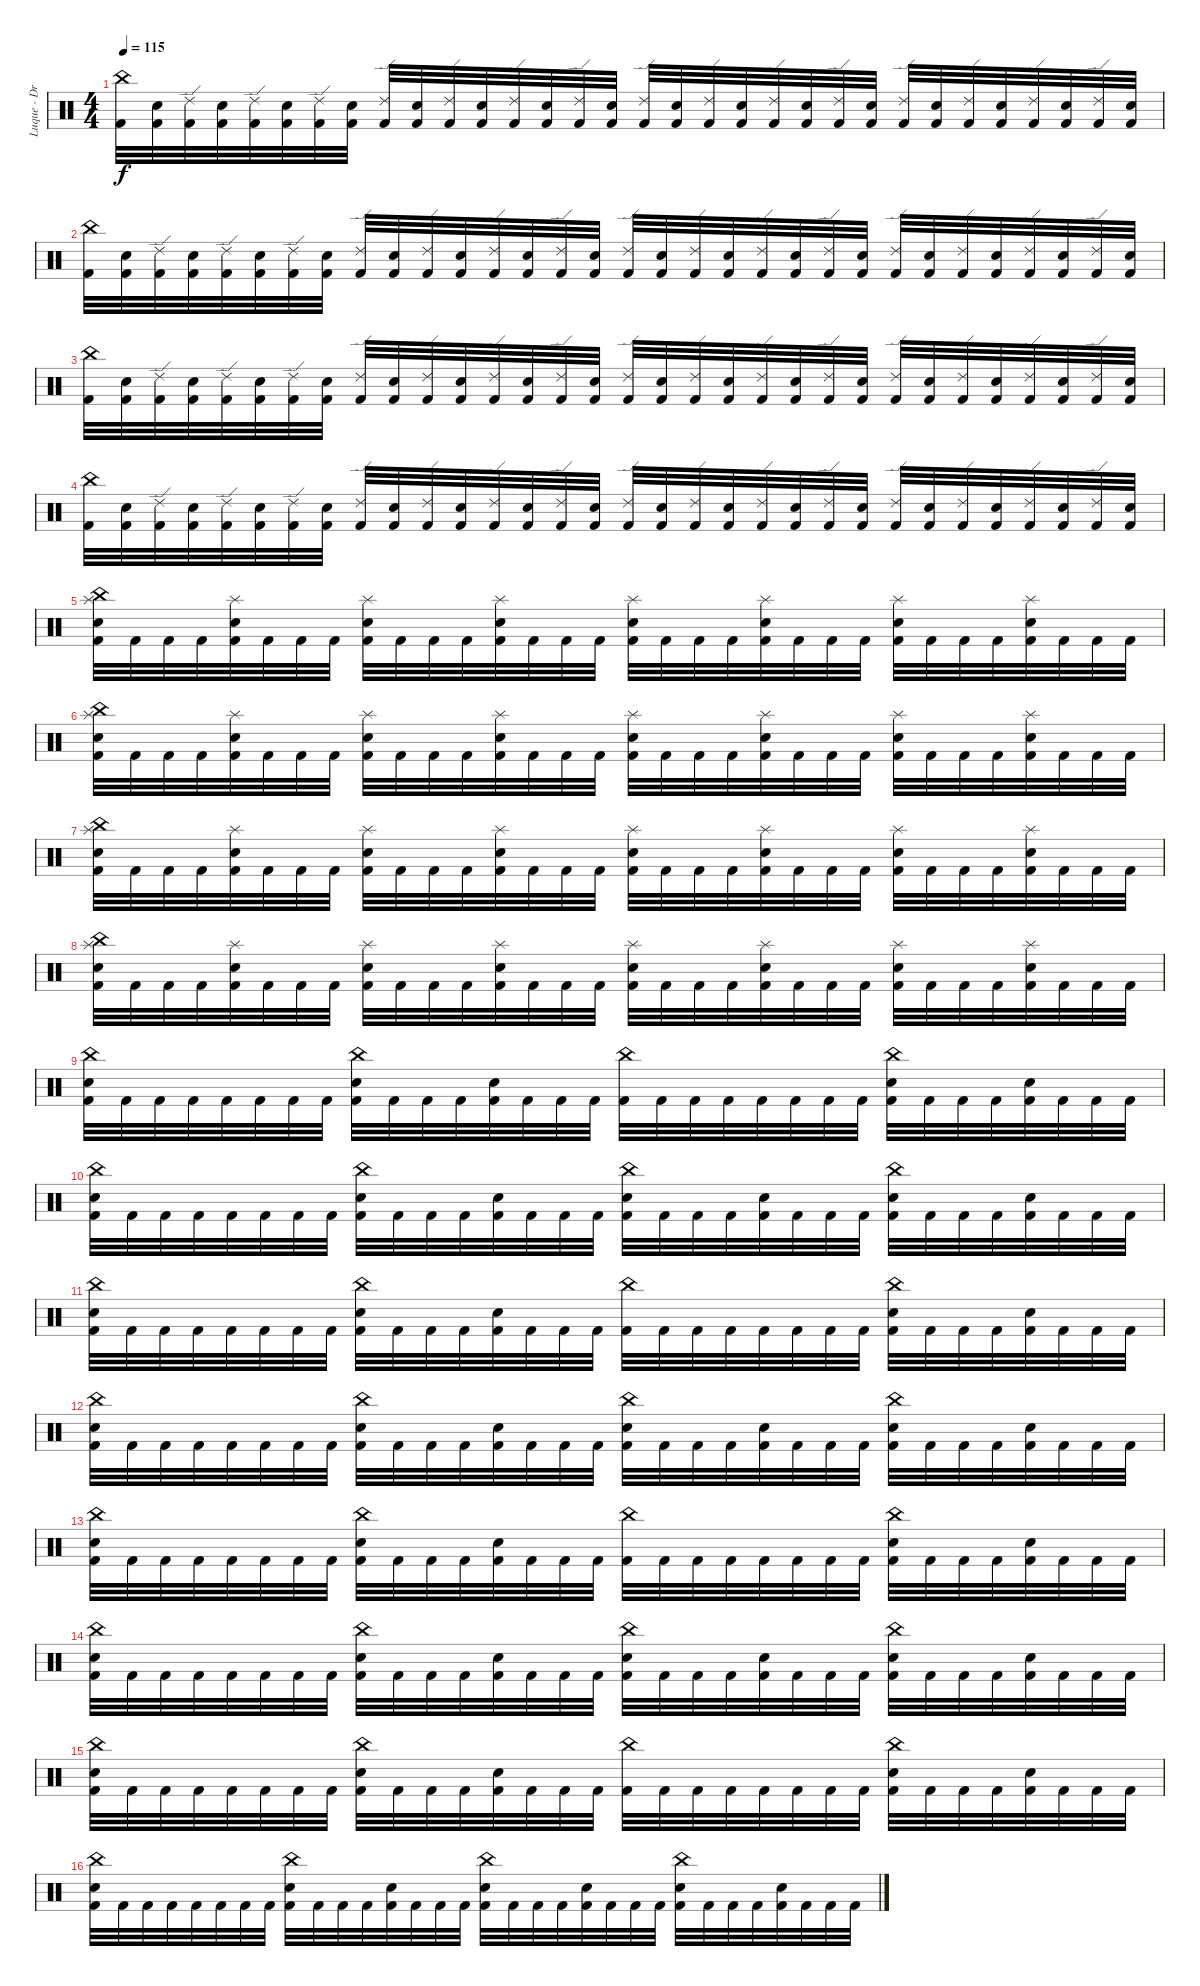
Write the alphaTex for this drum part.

\track ("Luque - Drums" "Luque - Dr") {instrument percussion}
\staff {score}
\articulation defaults
\ts (4 4)
\tempo 115
\clef neutral
\ks c
("China (hit)" "Kick (hit) 2").32{dy f} ("Electric Snare (hit)" "Kick (hit) 2").32 ("Ride (edge) 2" "Kick (hit) 2").32 ("Electric Snare (hit)" "Kick (hit) 2").32 ("Ride (edge) 2" "Kick (hit) 2").32 ("Electric Snare (hit)" "Kick (hit) 2").32 ("Ride (edge) 2" "Kick (hit) 2").32 ("Electric Snare (hit)" "Kick (hit) 2").32 ("Ride (edge) 2" "Kick (hit) 2").32 ("Electric Snare (hit)" "Kick (hit) 2").32 ("Ride (edge) 2" "Kick (hit) 2").32 ("Electric Snare (hit)" "Kick (hit) 2").32 ("Ride (edge) 2" "Kick (hit) 2").32 ("Electric Snare (hit)" "Kick (hit) 2").32 ("Ride (edge) 2" "Kick (hit) 2").32 ("Electric Snare (hit)" "Kick (hit) 2").32 ("Ride (edge) 2" "Kick (hit) 2").32 ("Electric Snare (hit)" "Kick (hit) 2").32 ("Ride (edge) 2" "Kick (hit) 2").32 ("Electric Snare (hit)" "Kick (hit) 2").32 ("Ride (edge) 2" "Kick (hit) 2").32 ("Electric Snare (hit)" "Kick (hit) 2").32 ("Ride (edge) 2" "Kick (hit) 2").32 ("Electric Snare (hit)" "Kick (hit) 2").32 ("Ride (edge) 2" "Kick (hit) 2").32 ("Electric Snare (hit)" "Kick (hit) 2").32 ("Ride (edge) 2" "Kick (hit) 2").32 ("Electric Snare (hit)" "Kick (hit) 2").32 ("Ride (edge) 2" "Kick (hit) 2").32 ("Electric Snare (hit)" "Kick (hit) 2").32 ("Ride (edge) 2" "Kick (hit) 2").32 ("Electric Snare (hit)" "Kick (hit) 2").32 |
("China (hit)" "Kick (hit) 2").32 ("Electric Snare (hit)" "Kick (hit) 2").32 ("Ride (edge) 2" "Kick (hit) 2").32 ("Electric Snare (hit)" "Kick (hit) 2").32 ("Ride (edge) 2" "Kick (hit) 2").32 ("Electric Snare (hit)" "Kick (hit) 2").32 ("Ride (edge) 2" "Kick (hit) 2").32 ("Electric Snare (hit)" "Kick (hit) 2").32 ("Ride (edge) 2" "Kick (hit) 2").32 ("Electric Snare (hit)" "Kick (hit) 2").32 ("Ride (edge) 2" "Kick (hit) 2").32 ("Electric Snare (hit)" "Kick (hit) 2").32 ("Ride (edge) 2" "Kick (hit) 2").32 ("Electric Snare (hit)" "Kick (hit) 2").32 ("Ride (edge) 2" "Kick (hit) 2").32 ("Electric Snare (hit)" "Kick (hit) 2").32 ("Ride (edge) 2" "Kick (hit) 2").32 ("Electric Snare (hit)" "Kick (hit) 2").32 ("Ride (edge) 2" "Kick (hit) 2").32 ("Electric Snare (hit)" "Kick (hit) 2").32 ("Ride (edge) 2" "Kick (hit) 2").32 ("Electric Snare (hit)" "Kick (hit) 2").32 ("Ride (edge) 2" "Kick (hit) 2").32 ("Electric Snare (hit)" "Kick (hit) 2").32 ("Ride (edge) 2" "Kick (hit) 2").32 ("Electric Snare (hit)" "Kick (hit) 2").32 ("Ride (edge) 2" "Kick (hit) 2").32 ("Electric Snare (hit)" "Kick (hit) 2").32 ("Ride (edge) 2" "Kick (hit) 2").32 ("Electric Snare (hit)" "Kick (hit) 2").32 ("Ride (edge) 2" "Kick (hit) 2").32 ("Electric Snare (hit)" "Kick (hit) 2").32 |
("China (hit)" "Kick (hit) 2").32 ("Electric Snare (hit)" "Kick (hit) 2").32 ("Ride (edge) 2" "Kick (hit) 2").32 ("Electric Snare (hit)" "Kick (hit) 2").32 ("Ride (edge) 2" "Kick (hit) 2").32 ("Electric Snare (hit)" "Kick (hit) 2").32 ("Ride (edge) 2" "Kick (hit) 2").32 ("Electric Snare (hit)" "Kick (hit) 2").32 ("Ride (edge) 2" "Kick (hit) 2").32 ("Electric Snare (hit)" "Kick (hit) 2").32 ("Ride (edge) 2" "Kick (hit) 2").32 ("Electric Snare (hit)" "Kick (hit) 2").32 ("Ride (edge) 2" "Kick (hit) 2").32 ("Electric Snare (hit)" "Kick (hit) 2").32 ("Ride (edge) 2" "Kick (hit) 2").32 ("Electric Snare (hit)" "Kick (hit) 2").32 ("Ride (edge) 2" "Kick (hit) 2").32 ("Electric Snare (hit)" "Kick (hit) 2").32 ("Ride (edge) 2" "Kick (hit) 2").32 ("Electric Snare (hit)" "Kick (hit) 2").32 ("Ride (edge) 2" "Kick (hit) 2").32 ("Electric Snare (hit)" "Kick (hit) 2").32 ("Ride (edge) 2" "Kick (hit) 2").32 ("Electric Snare (hit)" "Kick (hit) 2").32 ("Ride (edge) 2" "Kick (hit) 2").32 ("Electric Snare (hit)" "Kick (hit) 2").32 ("Ride (edge) 2" "Kick (hit) 2").32 ("Electric Snare (hit)" "Kick (hit) 2").32 ("Ride (edge) 2" "Kick (hit) 2").32 ("Electric Snare (hit)" "Kick (hit) 2").32 ("Ride (edge) 2" "Kick (hit) 2").32 ("Electric Snare (hit)" "Kick (hit) 2").32 |
("China (hit)" "Kick (hit) 2").32 ("Electric Snare (hit)" "Kick (hit) 2").32 ("Ride (edge) 2" "Kick (hit) 2").32 ("Electric Snare (hit)" "Kick (hit) 2").32 ("Ride (edge) 2" "Kick (hit) 2").32 ("Electric Snare (hit)" "Kick (hit) 2").32 ("Ride (edge) 2" "Kick (hit) 2").32 ("Electric Snare (hit)" "Kick (hit) 2").32 ("Ride (edge) 2" "Kick (hit) 2").32 ("Electric Snare (hit)" "Kick (hit) 2").32 ("Ride (edge) 2" "Kick (hit) 2").32 ("Electric Snare (hit)" "Kick (hit) 2").32 ("Ride (edge) 2" "Kick (hit) 2").32 ("Electric Snare (hit)" "Kick (hit) 2").32 ("Ride (edge) 2" "Kick (hit) 2").32 ("Electric Snare (hit)" "Kick (hit) 2").32 ("Ride (edge) 2" "Kick (hit) 2").32 ("Electric Snare (hit)" "Kick (hit) 2").32 ("Ride (edge) 2" "Kick (hit) 2").32 ("Electric Snare (hit)" "Kick (hit) 2").32 ("Ride (edge) 2" "Kick (hit) 2").32 ("Electric Snare (hit)" "Kick (hit) 2").32 ("Ride (edge) 2" "Kick (hit) 2").32 ("Electric Snare (hit)" "Kick (hit) 2").32 ("Ride (edge) 2" "Kick (hit) 2").32 ("Electric Snare (hit)" "Kick (hit) 2").32 ("Ride (edge) 2" "Kick (hit) 2").32 ("Electric Snare (hit)" "Kick (hit) 2").32 ("Ride (edge) 2" "Kick (hit) 2").32 ("Electric Snare (hit)" "Kick (hit) 2").32 ("Ride (edge) 2" "Kick (hit) 2").32 ("Electric Snare (hit)" "Kick (hit) 2").32 |
("Splash (hit)" "China (hit)" "Electric Snare (hit)" "Kick (hit) 2").32 "Kick (hit) 2".32 "Kick (hit) 2".32 "Kick (hit) 2".32 ("Splash (hit)" "Electric Snare (hit)" "Kick (hit) 2").32 "Kick (hit) 2".32 "Kick (hit) 2".32 "Kick (hit) 2".32 ("Splash (hit)" "Electric Snare (hit)" "Kick (hit) 2").32 "Kick (hit) 2".32 "Kick (hit) 2".32 "Kick (hit) 2".32 ("Splash (hit)" "Electric Snare (hit)" "Kick (hit) 2").32 "Kick (hit) 2".32 "Kick (hit) 2".32 "Kick (hit) 2".32 ("Splash (hit)" "Electric Snare (hit)" "Kick (hit) 2").32 "Kick (hit) 2".32 "Kick (hit) 2".32 "Kick (hit) 2".32 ("Splash (hit)" "Electric Snare (hit)" "Kick (hit) 2").32 "Kick (hit) 2".32 "Kick (hit) 2".32 "Kick (hit) 2".32 ("Splash (hit)" "Electric Snare (hit)" "Kick (hit) 2").32 "Kick (hit) 2".32 "Kick (hit) 2".32 "Kick (hit) 2".32 ("Splash (hit)" "Electric Snare (hit)" "Kick (hit) 2").32 "Kick (hit) 2".32 "Kick (hit) 2".32 "Kick (hit) 2".32 |
("Splash (hit)" "China (hit)" "Electric Snare (hit)" "Kick (hit) 2").32 "Kick (hit) 2".32 "Kick (hit) 2".32 "Kick (hit) 2".32 ("Splash (hit)" "Electric Snare (hit)" "Kick (hit) 2").32 "Kick (hit) 2".32 "Kick (hit) 2".32 "Kick (hit) 2".32 ("Splash (hit)" "Electric Snare (hit)" "Kick (hit) 2").32 "Kick (hit) 2".32 "Kick (hit) 2".32 "Kick (hit) 2".32 ("Splash (hit)" "Electric Snare (hit)" "Kick (hit) 2").32 "Kick (hit) 2".32 "Kick (hit) 2".32 "Kick (hit) 2".32 ("Splash (hit)" "Electric Snare (hit)" "Kick (hit) 2").32 "Kick (hit) 2".32 "Kick (hit) 2".32 "Kick (hit) 2".32 ("Splash (hit)" "Electric Snare (hit)" "Kick (hit) 2").32 "Kick (hit) 2".32 "Kick (hit) 2".32 "Kick (hit) 2".32 ("Splash (hit)" "Electric Snare (hit)" "Kick (hit) 2").32 "Kick (hit) 2".32 "Kick (hit) 2".32 "Kick (hit) 2".32 ("Splash (hit)" "Electric Snare (hit)" "Kick (hit) 2").32 "Kick (hit) 2".32 "Kick (hit) 2".32 "Kick (hit) 2".32 |
("Splash (hit)" "China (hit)" "Electric Snare (hit)" "Kick (hit) 2").32 "Kick (hit) 2".32 "Kick (hit) 2".32 "Kick (hit) 2".32 ("Splash (hit)" "Electric Snare (hit)" "Kick (hit) 2").32 "Kick (hit) 2".32 "Kick (hit) 2".32 "Kick (hit) 2".32 ("Splash (hit)" "Electric Snare (hit)" "Kick (hit) 2").32 "Kick (hit) 2".32 "Kick (hit) 2".32 "Kick (hit) 2".32 ("Splash (hit)" "Electric Snare (hit)" "Kick (hit) 2").32 "Kick (hit) 2".32 "Kick (hit) 2".32 "Kick (hit) 2".32 ("Splash (hit)" "Electric Snare (hit)" "Kick (hit) 2").32 "Kick (hit) 2".32 "Kick (hit) 2".32 "Kick (hit) 2".32 ("Splash (hit)" "Electric Snare (hit)" "Kick (hit) 2").32 "Kick (hit) 2".32 "Kick (hit) 2".32 "Kick (hit) 2".32 ("Splash (hit)" "Electric Snare (hit)" "Kick (hit) 2").32 "Kick (hit) 2".32 "Kick (hit) 2".32 "Kick (hit) 2".32 ("Splash (hit)" "Electric Snare (hit)" "Kick (hit) 2").32 "Kick (hit) 2".32 "Kick (hit) 2".32 "Kick (hit) 2".32 |
("Splash (hit)" "China (hit)" "Electric Snare (hit)" "Kick (hit) 2").32 "Kick (hit) 2".32 "Kick (hit) 2".32 "Kick (hit) 2".32 ("Splash (hit)" "Electric Snare (hit)" "Kick (hit) 2").32 "Kick (hit) 2".32 "Kick (hit) 2".32 "Kick (hit) 2".32 ("Splash (hit)" "Electric Snare (hit)" "Kick (hit) 2").32 "Kick (hit) 2".32 "Kick (hit) 2".32 "Kick (hit) 2".32 ("Splash (hit)" "Electric Snare (hit)" "Kick (hit) 2").32 "Kick (hit) 2".32 "Kick (hit) 2".32 "Kick (hit) 2".32 ("Splash (hit)" "Electric Snare (hit)" "Kick (hit) 2").32 "Kick (hit) 2".32 "Kick (hit) 2".32 "Kick (hit) 2".32 ("Splash (hit)" "Electric Snare (hit)" "Kick (hit) 2").32 "Kick (hit) 2".32 "Kick (hit) 2".32 "Kick (hit) 2".32 ("Splash (hit)" "Electric Snare (hit)" "Kick (hit) 2").32 "Kick (hit) 2".32 "Kick (hit) 2".32 "Kick (hit) 2".32 ("Splash (hit)" "Electric Snare (hit)" "Kick (hit) 2").32 "Kick (hit) 2".32 "Kick (hit) 2".32 "Kick (hit) 2".32 |
("China (hit)" "Electric Snare (hit)" "Kick (hit) 2").32 "Kick (hit) 2".32 "Kick (hit) 2".32 "Kick (hit) 2".32 "Kick (hit) 2".32 "Kick (hit) 2".32 "Kick (hit) 2".32 "Kick (hit) 2".32 ("China (hit)" "Electric Snare (hit)" "Kick (hit) 2").32 "Kick (hit) 2".32 "Kick (hit) 2".32 "Kick (hit) 2".32 ("Electric Snare (hit)" "Kick (hit) 2").32 "Kick (hit) 2".32 "Kick (hit) 2".32 "Kick (hit) 2".32 ("China (hit)" "Kick (hit) 2").32 "Kick (hit) 2".32 "Kick (hit) 2".32 "Kick (hit) 2".32 "Kick (hit) 2".32 "Kick (hit) 2".32 "Kick (hit) 2".32 "Kick (hit) 2".32 ("China (hit)" "Electric Snare (hit)" "Kick (hit) 2").32 "Kick (hit) 2".32 "Kick (hit) 2".32 "Kick (hit) 2".32 ("Electric Snare (hit)" "Kick (hit) 2").32 "Kick (hit) 2".32 "Kick (hit) 2".32 "Kick (hit) 2".32 |
("China (hit)" "Electric Snare (hit)" "Kick (hit) 2").32 "Kick (hit) 2".32 "Kick (hit) 2".32 "Kick (hit) 2".32 "Kick (hit) 2".32 "Kick (hit) 2".32 "Kick (hit) 2".32 "Kick (hit) 2".32 ("China (hit)" "Electric Snare (hit)" "Kick (hit) 2").32 "Kick (hit) 2".32 "Kick (hit) 2".32 "Kick (hit) 2".32 ("Electric Snare (hit)" "Kick (hit) 2").32 "Kick (hit) 2".32 "Kick (hit) 2".32 "Kick (hit) 2".32 ("China (hit)" "Electric Snare (hit)" "Kick (hit) 2").32 "Kick (hit) 2".32 "Kick (hit) 2".32 "Kick (hit) 2".32 ("Electric Snare (hit)" "Kick (hit) 2").32 "Kick (hit) 2".32 "Kick (hit) 2".32 "Kick (hit) 2".32 ("China (hit)" "Electric Snare (hit)" "Kick (hit) 2").32 "Kick (hit) 2".32 "Kick (hit) 2".32 "Kick (hit) 2".32 ("Electric Snare (hit)" "Kick (hit) 2").32 "Kick (hit) 2".32 "Kick (hit) 2".32 "Kick (hit) 2".32 |
("China (hit)" "Electric Snare (hit)" "Kick (hit) 2").32 "Kick (hit) 2".32 "Kick (hit) 2".32 "Kick (hit) 2".32 "Kick (hit) 2".32 "Kick (hit) 2".32 "Kick (hit) 2".32 "Kick (hit) 2".32 ("China (hit)" "Electric Snare (hit)" "Kick (hit) 2").32 "Kick (hit) 2".32 "Kick (hit) 2".32 "Kick (hit) 2".32 ("Electric Snare (hit)" "Kick (hit) 2").32 "Kick (hit) 2".32 "Kick (hit) 2".32 "Kick (hit) 2".32 ("China (hit)" "Kick (hit) 2").32 "Kick (hit) 2".32 "Kick (hit) 2".32 "Kick (hit) 2".32 "Kick (hit) 2".32 "Kick (hit) 2".32 "Kick (hit) 2".32 "Kick (hit) 2".32 ("China (hit)" "Electric Snare (hit)" "Kick (hit) 2").32 "Kick (hit) 2".32 "Kick (hit) 2".32 "Kick (hit) 2".32 ("Electric Snare (hit)" "Kick (hit) 2").32 "Kick (hit) 2".32 "Kick (hit) 2".32 "Kick (hit) 2".32 |
("China (hit)" "Electric Snare (hit)" "Kick (hit) 2").32 "Kick (hit) 2".32 "Kick (hit) 2".32 "Kick (hit) 2".32 "Kick (hit) 2".32 "Kick (hit) 2".32 "Kick (hit) 2".32 "Kick (hit) 2".32 ("China (hit)" "Electric Snare (hit)" "Kick (hit) 2").32 "Kick (hit) 2".32 "Kick (hit) 2".32 "Kick (hit) 2".32 ("Electric Snare (hit)" "Kick (hit) 2").32 "Kick (hit) 2".32 "Kick (hit) 2".32 "Kick (hit) 2".32 ("China (hit)" "Electric Snare (hit)" "Kick (hit) 2").32 "Kick (hit) 2".32 "Kick (hit) 2".32 "Kick (hit) 2".32 ("Electric Snare (hit)" "Kick (hit) 2").32 "Kick (hit) 2".32 "Kick (hit) 2".32 "Kick (hit) 2".32 ("China (hit)" "Electric Snare (hit)" "Kick (hit) 2").32 "Kick (hit) 2".32 "Kick (hit) 2".32 "Kick (hit) 2".32 ("Electric Snare (hit)" "Kick (hit) 2").32 "Kick (hit) 2".32 "Kick (hit) 2".32 "Kick (hit) 2".32 |
("China (hit)" "Electric Snare (hit)" "Kick (hit) 2").32 "Kick (hit) 2".32 "Kick (hit) 2".32 "Kick (hit) 2".32 "Kick (hit) 2".32 "Kick (hit) 2".32 "Kick (hit) 2".32 "Kick (hit) 2".32 ("China (hit)" "Electric Snare (hit)" "Kick (hit) 2").32 "Kick (hit) 2".32 "Kick (hit) 2".32 "Kick (hit) 2".32 ("Electric Snare (hit)" "Kick (hit) 2").32 "Kick (hit) 2".32 "Kick (hit) 2".32 "Kick (hit) 2".32 ("China (hit)" "Kick (hit) 2").32 "Kick (hit) 2".32 "Kick (hit) 2".32 "Kick (hit) 2".32 "Kick (hit) 2".32 "Kick (hit) 2".32 "Kick (hit) 2".32 "Kick (hit) 2".32 ("China (hit)" "Electric Snare (hit)" "Kick (hit) 2").32 "Kick (hit) 2".32 "Kick (hit) 2".32 "Kick (hit) 2".32 ("Electric Snare (hit)" "Kick (hit) 2").32 "Kick (hit) 2".32 "Kick (hit) 2".32 "Kick (hit) 2".32 |
("China (hit)" "Electric Snare (hit)" "Kick (hit) 2").32 "Kick (hit) 2".32 "Kick (hit) 2".32 "Kick (hit) 2".32 "Kick (hit) 2".32 "Kick (hit) 2".32 "Kick (hit) 2".32 "Kick (hit) 2".32 ("China (hit)" "Electric Snare (hit)" "Kick (hit) 2").32 "Kick (hit) 2".32 "Kick (hit) 2".32 "Kick (hit) 2".32 ("Electric Snare (hit)" "Kick (hit) 2").32 "Kick (hit) 2".32 "Kick (hit) 2".32 "Kick (hit) 2".32 ("China (hit)" "Electric Snare (hit)" "Kick (hit) 2").32 "Kick (hit) 2".32 "Kick (hit) 2".32 "Kick (hit) 2".32 ("Electric Snare (hit)" "Kick (hit) 2").32 "Kick (hit) 2".32 "Kick (hit) 2".32 "Kick (hit) 2".32 ("China (hit)" "Electric Snare (hit)" "Kick (hit) 2").32 "Kick (hit) 2".32 "Kick (hit) 2".32 "Kick (hit) 2".32 ("Electric Snare (hit)" "Kick (hit) 2").32 "Kick (hit) 2".32 "Kick (hit) 2".32 "Kick (hit) 2".32 |
("China (hit)" "Electric Snare (hit)" "Kick (hit) 2").32 "Kick (hit) 2".32 "Kick (hit) 2".32 "Kick (hit) 2".32 "Kick (hit) 2".32 "Kick (hit) 2".32 "Kick (hit) 2".32 "Kick (hit) 2".32 ("China (hit)" "Electric Snare (hit)" "Kick (hit) 2").32 "Kick (hit) 2".32 "Kick (hit) 2".32 "Kick (hit) 2".32 ("Electric Snare (hit)" "Kick (hit) 2").32 "Kick (hit) 2".32 "Kick (hit) 2".32 "Kick (hit) 2".32 ("China (hit)" "Kick (hit) 2").32 "Kick (hit) 2".32 "Kick (hit) 2".32 "Kick (hit) 2".32 "Kick (hit) 2".32 "Kick (hit) 2".32 "Kick (hit) 2".32 "Kick (hit) 2".32 ("China (hit)" "Electric Snare (hit)" "Kick (hit) 2").32 "Kick (hit) 2".32 "Kick (hit) 2".32 "Kick (hit) 2".32 ("Electric Snare (hit)" "Kick (hit) 2").32 "Kick (hit) 2".32 "Kick (hit) 2".32 "Kick (hit) 2".32 |
("China (hit)" "Electric Snare (hit)" "Kick (hit) 2").32 "Kick (hit) 2".32 "Kick (hit) 2".32 "Kick (hit) 2".32 "Kick (hit) 2".32 "Kick (hit) 2".32 "Kick (hit) 2".32 "Kick (hit) 2".32 ("China (hit)" "Electric Snare (hit)" "Kick (hit) 2").32 "Kick (hit) 2".32 "Kick (hit) 2".32 "Kick (hit) 2".32 ("Electric Snare (hit)" "Kick (hit) 2").32 "Kick (hit) 2".32 "Kick (hit) 2".32 "Kick (hit) 2".32 ("China (hit)" "Electric Snare (hit)" "Kick (hit) 2").32 "Kick (hit) 2".32 "Kick (hit) 2".32 "Kick (hit) 2".32 ("Electric Snare (hit)" "Kick (hit) 2").32 "Kick (hit) 2".32 "Kick (hit) 2".32 "Kick (hit) 2".32 ("China (hit)" "Electric Snare (hit)" "Kick (hit) 2").32 "Kick (hit) 2".32 "Kick (hit) 2".32 "Kick (hit) 2".32 ("Electric Snare (hit)" "Kick (hit) 2").32 "Kick (hit) 2".32 "Kick (hit) 2".32 "Kick (hit) 2".32
